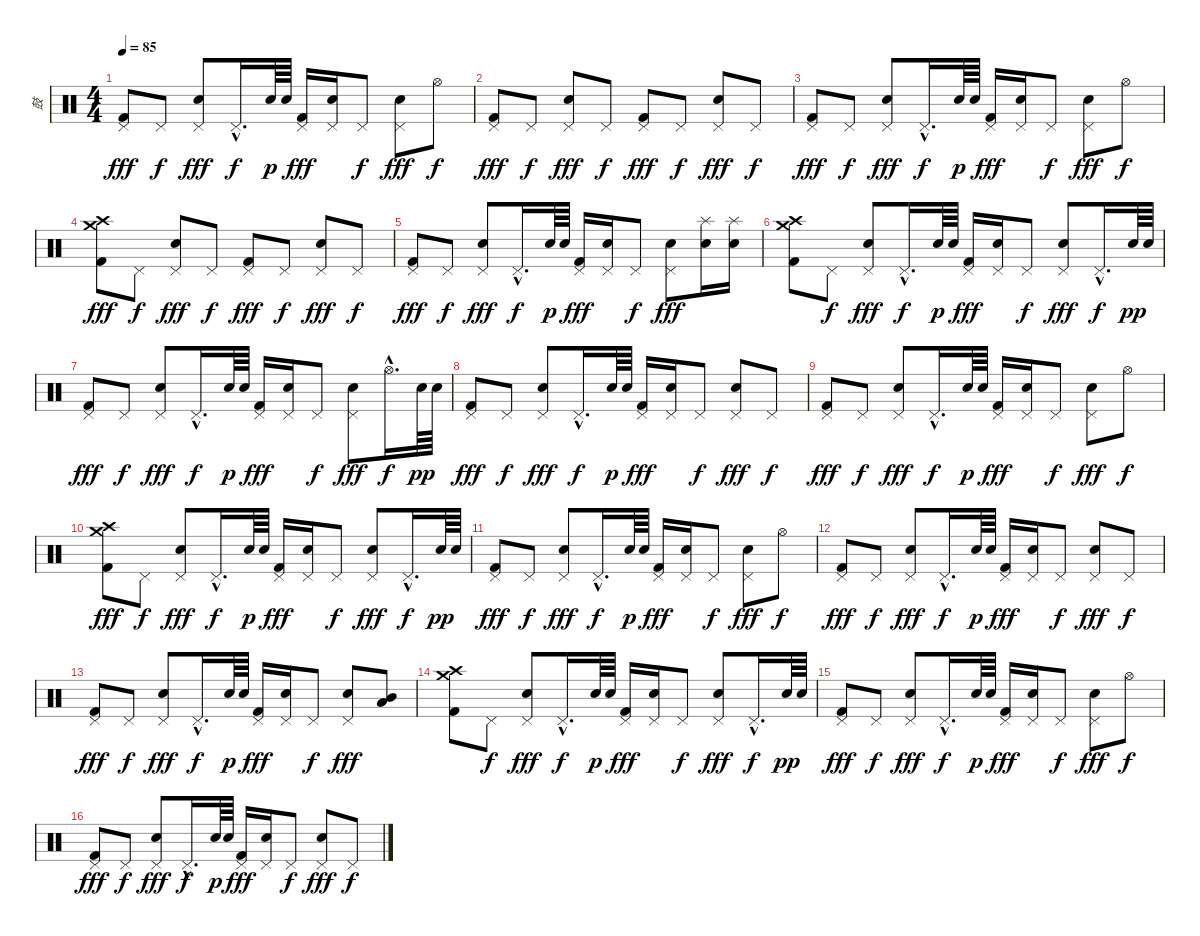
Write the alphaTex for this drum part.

\track ("鼓" "鼓") {instrument percussion}
\staff {score}
\articulation defaults
\ts (4 4)
\tempo 85
\clef neutral
\ks c
("Pedal Hi-Hat (hit)" "Kick (hit) 2").8{dy fff} "Pedal Hi-Hat (hit)".8{dy f} ("Pedal Hi-Hat (hit)" "Snare (hit) 2").8{dy fff} "Pedal Hi-Hat (hit)"{hac}.16{d dy f} "Snare (hit) 2".64{dy p} "Snare (hit) 2".64 ("Pedal Hi-Hat (hit)" "Kick (hit) 2").16{dy fff} ("Pedal Hi-Hat (hit)" "Snare (hit) 2").16 "Pedal Hi-Hat (hit)".8{dy f} ("Pedal Hi-Hat (hit)" "Snare (hit) 2").8{dy fff} "Hi-Hat (open)".8{dy f} |
("Pedal Hi-Hat (hit)" "Kick (hit) 2").8{dy fff} "Pedal Hi-Hat (hit)".8{dy f} ("Pedal Hi-Hat (hit)" "Snare (hit) 2").8{dy fff} "Pedal Hi-Hat (hit)".8{dy f} ("Pedal Hi-Hat (hit)" "Kick (hit) 2").8{dy fff} "Pedal Hi-Hat (hit)".8{dy f} ("Pedal Hi-Hat (hit)" "Snare (hit) 2").8{dy fff} "Pedal Hi-Hat (hit)".8{dy f} |
("Pedal Hi-Hat (hit)" "Kick (hit) 2").8{dy fff} "Pedal Hi-Hat (hit)".8{dy f} ("Pedal Hi-Hat (hit)" "Snare (hit) 2").8{dy fff} "Pedal Hi-Hat (hit)"{hac}.16{d dy f} "Snare (hit) 2".64{dy p} "Snare (hit) 2".64 ("Pedal Hi-Hat (hit)" "Kick (hit) 2").16{dy fff} ("Pedal Hi-Hat (hit)" "Snare (hit) 2").16 "Pedal Hi-Hat (hit)".8{dy f} ("Pedal Hi-Hat (hit)" "Snare (hit) 2").8{dy fff} "Hi-Hat (open)".8{dy f} |
("Crash medium (hit)" "Crash high (hit)" "Kick (hit) 2").8{dy fff} "Pedal Hi-Hat (hit)".8{dy f} ("Pedal Hi-Hat (hit)" "Snare (hit) 2").8{dy fff} "Pedal Hi-Hat (hit)".8{dy f} ("Pedal Hi-Hat (hit)" "Kick (hit) 2").8{dy fff} "Pedal Hi-Hat (hit)".8{dy f} ("Pedal Hi-Hat (hit)" "Snare (hit) 2").8{dy fff} "Pedal Hi-Hat (hit)".8{dy f} |
("Pedal Hi-Hat (hit)" "Kick (hit) 2").8{dy fff} "Pedal Hi-Hat (hit)".8{dy f} ("Pedal Hi-Hat (hit)" "Snare (hit) 2").8{dy fff} "Pedal Hi-Hat (hit)"{hac}.16{d dy f} "Snare (hit) 2".64{dy p} "Snare (hit) 2".64 ("Pedal Hi-Hat (hit)" "Kick (hit) 2").16{dy fff} ("Pedal Hi-Hat (hit)" "Snare (hit) 2").16 "Pedal Hi-Hat (hit)".8{dy f} ("Pedal Hi-Hat (hit)" "Snare (hit) 2").8{dy fff} ("Splash (hit)" "Snare (hit) 2").16 ("Splash (hit)" "Snare (hit) 2").16 |
("Crash high (hit)" "Crash medium (hit)" "Kick (hit) 2").8 "Pedal Hi-Hat (hit)".8{dy f} ("Pedal Hi-Hat (hit)" "Snare (hit) 2").8{dy fff} "Pedal Hi-Hat (hit)"{hac}.16{d dy f} "Snare (hit) 2".64{dy p} "Snare (hit) 2".64 ("Pedal Hi-Hat (hit)" "Kick (hit) 2").16{dy fff} ("Pedal Hi-Hat (hit)" "Snare (hit) 2").16 "Pedal Hi-Hat (hit)".8{dy f} ("Pedal Hi-Hat (hit)" "Snare (hit) 2").8{dy fff} "Pedal Hi-Hat (hit)"{hac}.16{d dy f} "Snare (hit) 2".64{dy pp} "Snare (hit) 2".64 |
("Pedal Hi-Hat (hit)" "Kick (hit) 2").8{dy fff} "Pedal Hi-Hat (hit)".8{dy f} ("Pedal Hi-Hat (hit)" "Snare (hit) 2").8{dy fff} "Pedal Hi-Hat (hit)"{hac}.16{d dy f} "Snare (hit) 2".64{dy p} "Snare (hit) 2".64 ("Pedal Hi-Hat (hit)" "Kick (hit) 2").16{dy fff} ("Pedal Hi-Hat (hit)" "Snare (hit) 2").16 "Pedal Hi-Hat (hit)".8{dy f} ("Pedal Hi-Hat (hit)" "Snare (hit) 2").8{dy fff} "Hi-Hat (open)"{hac}.16{d dy f} "Snare (hit) 2".64{dy pp} "Snare (hit) 2".64 |
("Pedal Hi-Hat (hit)" "Kick (hit) 2").8{dy fff} "Pedal Hi-Hat (hit)".8{dy f} ("Pedal Hi-Hat (hit)" "Snare (hit) 2").8{dy fff} "Pedal Hi-Hat (hit)"{hac}.16{d dy f} "Snare (hit) 2".64{dy p} "Snare (hit) 2".64 ("Pedal Hi-Hat (hit)" "Kick (hit) 2").16{dy fff} ("Pedal Hi-Hat (hit)" "Snare (hit) 2").16 "Pedal Hi-Hat (hit)".8{dy f} ("Pedal Hi-Hat (hit)" "Snare (hit) 2").8{dy fff} "Pedal Hi-Hat (hit)".8{dy f} |
("Pedal Hi-Hat (hit)" "Kick (hit) 2").8{dy fff} "Pedal Hi-Hat (hit)".8{dy f} ("Pedal Hi-Hat (hit)" "Snare (hit) 2").8{dy fff} "Pedal Hi-Hat (hit)"{hac}.16{d dy f} "Snare (hit) 2".64{dy p} "Snare (hit) 2".64 ("Pedal Hi-Hat (hit)" "Kick (hit) 2").16{dy fff} ("Pedal Hi-Hat (hit)" "Snare (hit) 2").16 "Pedal Hi-Hat (hit)".8{dy f} ("Pedal Hi-Hat (hit)" "Snare (hit) 2").8{dy fff} "Hi-Hat (open)".8{dy f} |
("Crash high (hit)" "Crash medium (hit)" "Kick (hit) 2").8{dy fff} "Pedal Hi-Hat (hit)".8{dy f} ("Pedal Hi-Hat (hit)" "Snare (hit) 2").8{dy fff} "Pedal Hi-Hat (hit)"{hac}.16{d dy f} "Snare (hit) 2".64{dy p} "Snare (hit) 2".64 ("Pedal Hi-Hat (hit)" "Kick (hit) 2").16{dy fff} ("Pedal Hi-Hat (hit)" "Snare (hit) 2").16 "Pedal Hi-Hat (hit)".8{dy f} ("Pedal Hi-Hat (hit)" "Snare (hit) 2").8{dy fff} "Pedal Hi-Hat (hit)"{hac}.16{d dy f} "Snare (hit) 2".64{dy pp} "Snare (hit) 2".64 |
("Pedal Hi-Hat (hit)" "Kick (hit) 2").8{dy fff} "Pedal Hi-Hat (hit)".8{dy f} ("Pedal Hi-Hat (hit)" "Snare (hit) 2").8{dy fff} "Pedal Hi-Hat (hit)"{hac}.16{d dy f} "Snare (hit) 2".64{dy p} "Snare (hit) 2".64 ("Pedal Hi-Hat (hit)" "Kick (hit) 2").16{dy fff} ("Pedal Hi-Hat (hit)" "Snare (hit) 2").16 "Pedal Hi-Hat (hit)".8{dy f} ("Pedal Hi-Hat (hit)" "Snare (hit) 2").8{dy fff} "Hi-Hat (open)".8{dy f} |
("Pedal Hi-Hat (hit)" "Kick (hit) 2").8{dy fff} "Pedal Hi-Hat (hit)".8{dy f} ("Pedal Hi-Hat (hit)" "Snare (hit) 2").8{dy fff} "Pedal Hi-Hat (hit)"{hac}.16{d dy f} "Snare (hit) 2".64{dy p} "Snare (hit) 2".64 ("Pedal Hi-Hat (hit)" "Kick (hit) 2").16{dy fff} ("Pedal Hi-Hat (hit)" "Snare (hit) 2").16 "Pedal Hi-Hat (hit)".8{dy f} ("Pedal Hi-Hat (hit)" "Snare (hit) 2").8{dy fff} "Pedal Hi-Hat (hit)".8{dy f} |
("Pedal Hi-Hat (hit)" "Kick (hit) 2").8{dy fff} "Pedal Hi-Hat (hit)".8{dy f} ("Pedal Hi-Hat (hit)" "Snare (hit) 2").8{dy fff} "Pedal Hi-Hat (hit)"{hac}.16{d dy f} "Snare (hit) 2".64{dy p} "Snare (hit) 2".64 ("Pedal Hi-Hat (hit)" "Kick (hit) 2").16{dy fff} ("Pedal Hi-Hat (hit)" "Snare (hit) 2").16 "Pedal Hi-Hat (hit)".8{dy f} ("Pedal Hi-Hat (hit)" "Snare (hit) 2").8{dy fff} ("Mid Tom (hit)" "Low Tom (hit)").8 |
("Crash high (hit)" "Crash medium (hit)" "Kick (hit) 2").8 "Pedal Hi-Hat (hit)".8{dy f} ("Pedal Hi-Hat (hit)" "Snare (hit) 2").8{dy fff} "Pedal Hi-Hat (hit)"{hac}.16{d dy f} "Snare (hit) 2".64{dy p} "Snare (hit) 2".64 ("Pedal Hi-Hat (hit)" "Kick (hit) 2").16{dy fff} ("Pedal Hi-Hat (hit)" "Snare (hit) 2").16 "Pedal Hi-Hat (hit)".8{dy f} ("Pedal Hi-Hat (hit)" "Snare (hit) 2").8{dy fff} "Pedal Hi-Hat (hit)"{hac}.16{d dy f} "Snare (hit) 2".64{dy pp} "Snare (hit) 2".64 |
("Pedal Hi-Hat (hit)" "Kick (hit) 2").8{dy fff} "Pedal Hi-Hat (hit)".8{dy f} ("Pedal Hi-Hat (hit)" "Snare (hit) 2").8{dy fff} "Pedal Hi-Hat (hit)"{hac}.16{d dy f} "Snare (hit) 2".64{dy p} "Snare (hit) 2".64 ("Pedal Hi-Hat (hit)" "Kick (hit) 2").16{dy fff} ("Pedal Hi-Hat (hit)" "Snare (hit) 2").16 "Pedal Hi-Hat (hit)".8{dy f} ("Pedal Hi-Hat (hit)" "Snare (hit) 2").8{dy fff} "Hi-Hat (open)".8{dy f} |
("Pedal Hi-Hat (hit)" "Kick (hit) 2").8{dy fff} "Pedal Hi-Hat (hit)".8{dy f} ("Pedal Hi-Hat (hit)" "Snare (hit) 2").8{dy fff} "Pedal Hi-Hat (hit)"{hac}.16{d dy f} "Snare (hit) 2".64{dy p} "Snare (hit) 2".64 ("Pedal Hi-Hat (hit)" "Kick (hit) 2").16{dy fff} ("Pedal Hi-Hat (hit)" "Snare (hit) 2").16 "Pedal Hi-Hat (hit)".8{dy f} ("Pedal Hi-Hat (hit)" "Snare (hit) 2").8{dy fff} "Pedal Hi-Hat (hit)".8{dy f}
